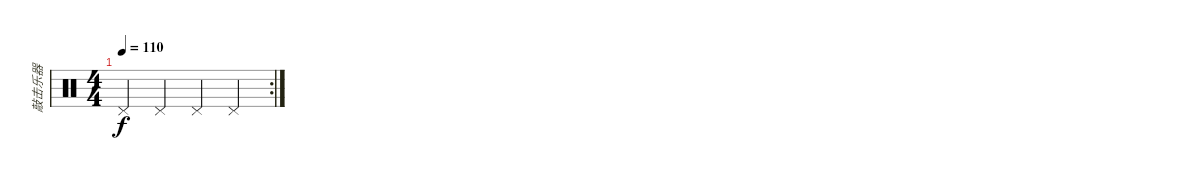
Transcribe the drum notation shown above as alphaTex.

\track ("敲击乐器" "敲击乐器") {instrument percussion}
\staff {score}
\articulation defaults
\rc 2
\ts (4 4)
\tempo 110
\clef neutral
\ks c "Pedal Hi-Hat (hit)".4{dy f} "Pedal Hi-Hat (hit)".4 "Pedal Hi-Hat (hit)".4 "Pedal Hi-Hat (hit)".4
